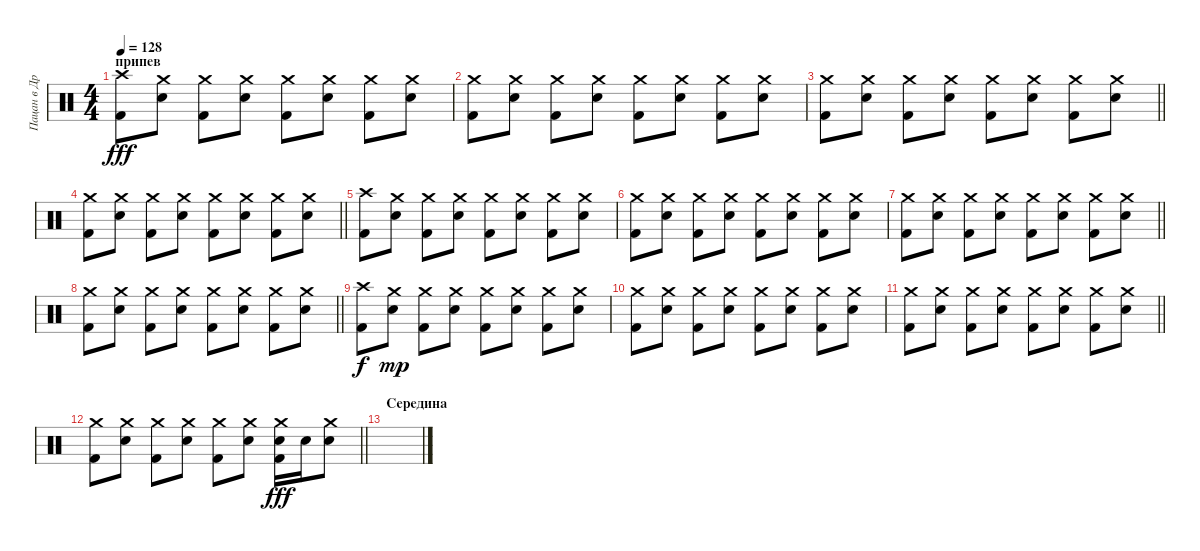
\track ("Пацан в Дредах" "Пацан в Др") {instrument percussion}
\staff {score}
\articulation defaults
\ts (4 4)
\section ("" "припев")
\tempo 128
\clef neutral
\ks c
("Crash high (hit)" "Kick (hit) 2").8{dy fff} ("Crash medium (hit)" "Electric Snare (hit)").8 ("Crash medium (hit)" "Kick (hit) 2").8 ("Crash medium (hit)" "Electric Snare (hit)").8 ("Crash medium (hit)" "Kick (hit) 2").8 ("Crash medium (hit)" "Electric Snare (hit)").8 ("Crash medium (hit)" "Kick (hit) 2").8 ("Crash medium (hit)" "Electric Snare (hit)").8 |
("Crash medium (hit)" "Kick (hit) 2").8 ("Crash medium (hit)" "Electric Snare (hit)").8 ("Crash medium (hit)" "Kick (hit) 2").8 ("Crash medium (hit)" "Electric Snare (hit)").8 ("Crash medium (hit)" "Kick (hit) 2").8 ("Crash medium (hit)" "Electric Snare (hit)").8 ("Crash medium (hit)" "Kick (hit) 2").8 ("Crash medium (hit)" "Electric Snare (hit)").8 |
\barLineRight lightlight
("Crash medium (hit)" "Kick (hit) 2").8 ("Crash medium (hit)" "Electric Snare (hit)").8 ("Crash medium (hit)" "Kick (hit) 2").8 ("Crash medium (hit)" "Electric Snare (hit)").8 ("Crash medium (hit)" "Kick (hit) 2").8 ("Crash medium (hit)" "Electric Snare (hit)").8 ("Crash medium (hit)" "Kick (hit) 2").8 ("Crash medium (hit)" "Electric Snare (hit)").8 |
\barLineRight lightlight
("Crash medium (hit)" "Kick (hit) 2").8 ("Crash medium (hit)" "Electric Snare (hit)").8 ("Crash medium (hit)" "Kick (hit) 2").8 ("Crash medium (hit)" "Electric Snare (hit)").8 ("Crash medium (hit)" "Kick (hit) 2").8 ("Crash medium (hit)" "Electric Snare (hit)").8 ("Crash medium (hit)" "Kick (hit) 2").8 ("Crash medium (hit)" "Electric Snare (hit)").8 |
("Crash high (hit)" "Kick (hit) 2").8 ("Crash medium (hit)" "Electric Snare (hit)").8 ("Crash medium (hit)" "Kick (hit) 2").8 ("Crash medium (hit)" "Electric Snare (hit)").8 ("Crash medium (hit)" "Kick (hit) 2").8 ("Crash medium (hit)" "Electric Snare (hit)").8 ("Crash medium (hit)" "Kick (hit) 2").8 ("Crash medium (hit)" "Electric Snare (hit)").8 |
("Crash medium (hit)" "Kick (hit) 2").8 ("Crash medium (hit)" "Electric Snare (hit)").8 ("Crash medium (hit)" "Kick (hit) 2").8 ("Crash medium (hit)" "Electric Snare (hit)").8 ("Crash medium (hit)" "Kick (hit) 2").8 ("Crash medium (hit)" "Electric Snare (hit)").8 ("Crash medium (hit)" "Kick (hit) 2").8 ("Crash medium (hit)" "Electric Snare (hit)").8 |
\barLineRight lightlight
("Crash medium (hit)" "Kick (hit) 2").8 ("Crash medium (hit)" "Electric Snare (hit)").8 ("Crash medium (hit)" "Kick (hit) 2").8 ("Crash medium (hit)" "Electric Snare (hit)").8 ("Crash medium (hit)" "Kick (hit) 2").8 ("Crash medium (hit)" "Electric Snare (hit)").8 ("Crash medium (hit)" "Kick (hit) 2").8 ("Crash medium (hit)" "Electric Snare (hit)").8 |
\barLineRight lightlight
("Crash medium (hit)" "Kick (hit) 2").8 ("Crash medium (hit)" "Electric Snare (hit)").8 ("Crash medium (hit)" "Kick (hit) 2").8 ("Crash medium (hit)" "Electric Snare (hit)").8 ("Crash medium (hit)" "Kick (hit) 2").8 ("Crash medium (hit)" "Electric Snare (hit)").8 ("Crash medium (hit)" "Kick (hit) 2").8 ("Crash medium (hit)" "Electric Snare (hit)").8 |
("Crash high (hit)" "Kick (hit) 2").8{dy f} ("Crash medium (hit)" "Electric Snare (hit)").8{dy mp} ("Crash medium (hit)" "Kick (hit) 2").8 ("Crash medium (hit)" "Electric Snare (hit)").8 ("Crash medium (hit)" "Kick (hit) 2").8 ("Crash medium (hit)" "Electric Snare (hit)").8 ("Crash medium (hit)" "Kick (hit) 2").8 ("Crash medium (hit)" "Electric Snare (hit)").8 |
("Crash medium (hit)" "Kick (hit) 2").8 ("Crash medium (hit)" "Electric Snare (hit)").8 ("Crash medium (hit)" "Kick (hit) 2").8 ("Crash medium (hit)" "Electric Snare (hit)").8 ("Crash medium (hit)" "Kick (hit) 2").8 ("Crash medium (hit)" "Electric Snare (hit)").8 ("Crash medium (hit)" "Kick (hit) 2").8 ("Crash medium (hit)" "Electric Snare (hit)").8 |
\barLineRight lightlight
("Crash medium (hit)" "Kick (hit) 2").8 ("Crash medium (hit)" "Electric Snare (hit)").8 ("Crash medium (hit)" "Kick (hit) 2").8 ("Crash medium (hit)" "Electric Snare (hit)").8 ("Crash medium (hit)" "Kick (hit) 2").8 ("Crash medium (hit)" "Electric Snare (hit)").8 ("Crash medium (hit)" "Kick (hit) 2").8 ("Crash medium (hit)" "Electric Snare (hit)").8 |
\barLineRight lightlight
("Crash medium (hit)" "Kick (hit) 2").8 ("Crash medium (hit)" "Electric Snare (hit)").8 ("Crash medium (hit)" "Kick (hit) 2").8 ("Crash medium (hit)" "Electric Snare (hit)").8 ("Crash medium (hit)" "Kick (hit) 2").8 ("Crash medium (hit)" "Electric Snare (hit)").8 ("Crash medium (hit)" "Electric Snare (hit)" "Kick (hit) 2").16{dy fff} "Electric Snare (hit)".16 ("Crash medium (hit)" "Electric Snare (hit)").8 |
\section ("" "Середина")
